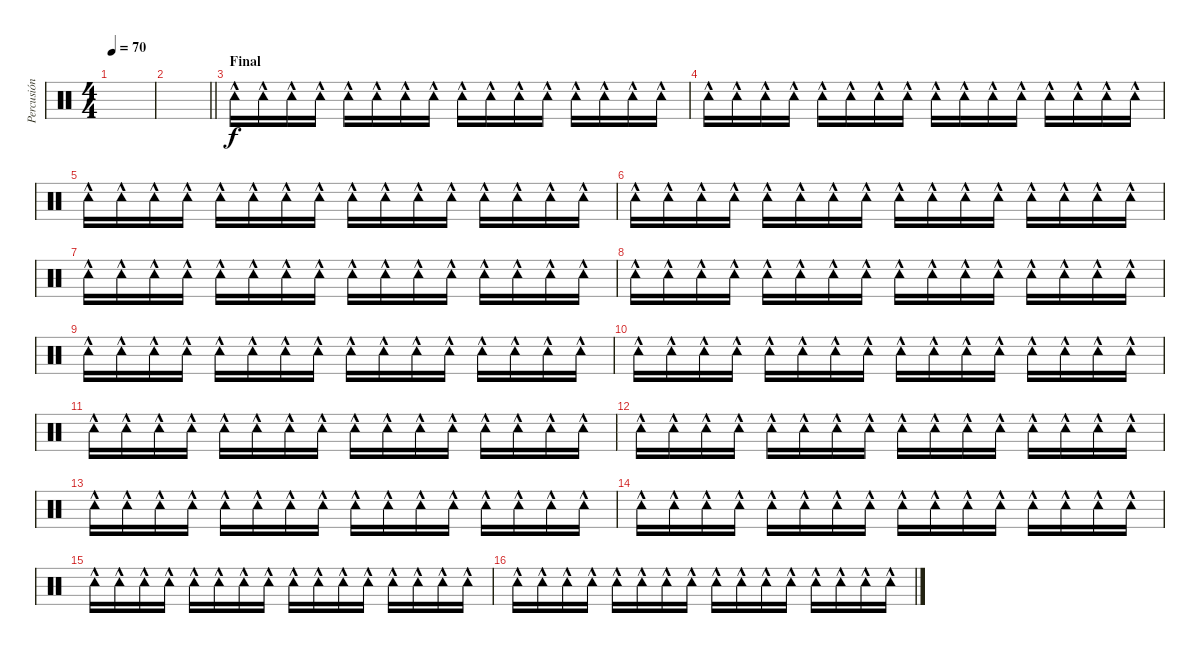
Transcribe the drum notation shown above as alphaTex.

\track ("Percusión" "Percusión") {instrument percussion}
\staff {score}
\articulation defaults
\ts (4 4)
\tempo 70
\clef neutral
\ks c
|
\barLineRight lightlight
|
\section ("" "Final")
"Tambourine (hit)"{hac}.16 "Tambourine (hit)"{hac}.16 "Tambourine (hit)"{hac}.16 "Tambourine (hit)"{hac}.16 "Tambourine (hit)"{hac}.16 "Tambourine (hit)"{hac}.16 "Tambourine (hit)"{hac}.16 "Tambourine (hit)"{hac}.16 "Tambourine (hit)"{hac}.16 "Tambourine (hit)"{hac}.16 "Tambourine (hit)"{hac}.16 "Tambourine (hit)"{hac}.16 "Tambourine (hit)"{hac}.16 "Tambourine (hit)"{hac}.16 "Tambourine (hit)"{hac}.16 "Tambourine (hit)"{hac}.16 |
"Tambourine (hit)"{hac}.16 "Tambourine (hit)"{hac}.16 "Tambourine (hit)"{hac}.16 "Tambourine (hit)"{hac}.16 "Tambourine (hit)"{hac}.16 "Tambourine (hit)"{hac}.16 "Tambourine (hit)"{hac}.16 "Tambourine (hit)"{hac}.16 "Tambourine (hit)"{hac}.16 "Tambourine (hit)"{hac}.16 "Tambourine (hit)"{hac}.16 "Tambourine (hit)"{hac}.16 "Tambourine (hit)"{hac}.16 "Tambourine (hit)"{hac}.16 "Tambourine (hit)"{hac}.16 "Tambourine (hit)"{hac}.16 |
"Tambourine (hit)"{hac}.16 "Tambourine (hit)"{hac}.16 "Tambourine (hit)"{hac}.16 "Tambourine (hit)"{hac}.16 "Tambourine (hit)"{hac}.16 "Tambourine (hit)"{hac}.16 "Tambourine (hit)"{hac}.16 "Tambourine (hit)"{hac}.16 "Tambourine (hit)"{hac}.16 "Tambourine (hit)"{hac}.16 "Tambourine (hit)"{hac}.16 "Tambourine (hit)"{hac}.16 "Tambourine (hit)"{hac}.16 "Tambourine (hit)"{hac}.16 "Tambourine (hit)"{hac}.16 "Tambourine (hit)"{hac}.16 |
"Tambourine (hit)"{hac}.16 "Tambourine (hit)"{hac}.16 "Tambourine (hit)"{hac}.16 "Tambourine (hit)"{hac}.16 "Tambourine (hit)"{hac}.16 "Tambourine (hit)"{hac}.16 "Tambourine (hit)"{hac}.16 "Tambourine (hit)"{hac}.16 "Tambourine (hit)"{hac}.16 "Tambourine (hit)"{hac}.16 "Tambourine (hit)"{hac}.16 "Tambourine (hit)"{hac}.16 "Tambourine (hit)"{hac}.16 "Tambourine (hit)"{hac}.16 "Tambourine (hit)"{hac}.16 "Tambourine (hit)"{hac}.16 |
"Tambourine (hit)"{hac}.16 "Tambourine (hit)"{hac}.16 "Tambourine (hit)"{hac}.16 "Tambourine (hit)"{hac}.16 "Tambourine (hit)"{hac}.16 "Tambourine (hit)"{hac}.16 "Tambourine (hit)"{hac}.16 "Tambourine (hit)"{hac}.16 "Tambourine (hit)"{hac}.16 "Tambourine (hit)"{hac}.16 "Tambourine (hit)"{hac}.16 "Tambourine (hit)"{hac}.16 "Tambourine (hit)"{hac}.16 "Tambourine (hit)"{hac}.16 "Tambourine (hit)"{hac}.16 "Tambourine (hit)"{hac}.16 |
"Tambourine (hit)"{hac}.16 "Tambourine (hit)"{hac}.16 "Tambourine (hit)"{hac}.16 "Tambourine (hit)"{hac}.16 "Tambourine (hit)"{hac}.16 "Tambourine (hit)"{hac}.16 "Tambourine (hit)"{hac}.16 "Tambourine (hit)"{hac}.16 "Tambourine (hit)"{hac}.16 "Tambourine (hit)"{hac}.16 "Tambourine (hit)"{hac}.16 "Tambourine (hit)"{hac}.16 "Tambourine (hit)"{hac}.16 "Tambourine (hit)"{hac}.16 "Tambourine (hit)"{hac}.16 "Tambourine (hit)"{hac}.16 |
"Tambourine (hit)"{hac}.16 "Tambourine (hit)"{hac}.16 "Tambourine (hit)"{hac}.16 "Tambourine (hit)"{hac}.16 "Tambourine (hit)"{hac}.16 "Tambourine (hit)"{hac}.16 "Tambourine (hit)"{hac}.16 "Tambourine (hit)"{hac}.16 "Tambourine (hit)"{hac}.16 "Tambourine (hit)"{hac}.16 "Tambourine (hit)"{hac}.16 "Tambourine (hit)"{hac}.16 "Tambourine (hit)"{hac}.16 "Tambourine (hit)"{hac}.16 "Tambourine (hit)"{hac}.16 "Tambourine (hit)"{hac}.16 |
"Tambourine (hit)"{hac}.16 "Tambourine (hit)"{hac}.16 "Tambourine (hit)"{hac}.16 "Tambourine (hit)"{hac}.16 "Tambourine (hit)"{hac}.16 "Tambourine (hit)"{hac}.16 "Tambourine (hit)"{hac}.16 "Tambourine (hit)"{hac}.16 "Tambourine (hit)"{hac}.16 "Tambourine (hit)"{hac}.16 "Tambourine (hit)"{hac}.16 "Tambourine (hit)"{hac}.16 "Tambourine (hit)"{hac}.16 "Tambourine (hit)"{hac}.16 "Tambourine (hit)"{hac}.16 "Tambourine (hit)"{hac}.16 |
"Tambourine (hit)"{hac}.16 "Tambourine (hit)"{hac}.16 "Tambourine (hit)"{hac}.16 "Tambourine (hit)"{hac}.16 "Tambourine (hit)"{hac}.16 "Tambourine (hit)"{hac}.16 "Tambourine (hit)"{hac}.16 "Tambourine (hit)"{hac}.16 "Tambourine (hit)"{hac}.16 "Tambourine (hit)"{hac}.16 "Tambourine (hit)"{hac}.16 "Tambourine (hit)"{hac}.16 "Tambourine (hit)"{hac}.16 "Tambourine (hit)"{hac}.16 "Tambourine (hit)"{hac}.16 "Tambourine (hit)"{hac}.16 |
"Tambourine (hit)"{hac}.16 "Tambourine (hit)"{hac}.16 "Tambourine (hit)"{hac}.16 "Tambourine (hit)"{hac}.16 "Tambourine (hit)"{hac}.16 "Tambourine (hit)"{hac}.16 "Tambourine (hit)"{hac}.16 "Tambourine (hit)"{hac}.16 "Tambourine (hit)"{hac}.16 "Tambourine (hit)"{hac}.16 "Tambourine (hit)"{hac}.16 "Tambourine (hit)"{hac}.16 "Tambourine (hit)"{hac}.16 "Tambourine (hit)"{hac}.16 "Tambourine (hit)"{hac}.16 "Tambourine (hit)"{hac}.16 |
"Tambourine (hit)"{hac}.16 "Tambourine (hit)"{hac}.16 "Tambourine (hit)"{hac}.16 "Tambourine (hit)"{hac}.16 "Tambourine (hit)"{hac}.16 "Tambourine (hit)"{hac}.16 "Tambourine (hit)"{hac}.16 "Tambourine (hit)"{hac}.16 "Tambourine (hit)"{hac}.16 "Tambourine (hit)"{hac}.16 "Tambourine (hit)"{hac}.16 "Tambourine (hit)"{hac}.16 "Tambourine (hit)"{hac}.16 "Tambourine (hit)"{hac}.16 "Tambourine (hit)"{hac}.16 "Tambourine (hit)"{hac}.16 |
"Tambourine (hit)"{hac}.16 "Tambourine (hit)"{hac}.16 "Tambourine (hit)"{hac}.16 "Tambourine (hit)"{hac}.16 "Tambourine (hit)"{hac}.16 "Tambourine (hit)"{hac}.16 "Tambourine (hit)"{hac}.16 "Tambourine (hit)"{hac}.16 "Tambourine (hit)"{hac}.16 "Tambourine (hit)"{hac}.16 "Tambourine (hit)"{hac}.16 "Tambourine (hit)"{hac}.16 "Tambourine (hit)"{hac}.16 "Tambourine (hit)"{hac}.16 "Tambourine (hit)"{hac}.16 "Tambourine (hit)"{hac}.16 |
"Tambourine (hit)"{hac}.16 "Tambourine (hit)"{hac}.16 "Tambourine (hit)"{hac}.16 "Tambourine (hit)"{hac}.16 "Tambourine (hit)"{hac}.16 "Tambourine (hit)"{hac}.16 "Tambourine (hit)"{hac}.16 "Tambourine (hit)"{hac}.16 "Tambourine (hit)"{hac}.16 "Tambourine (hit)"{hac}.16 "Tambourine (hit)"{hac}.16 "Tambourine (hit)"{hac}.16 "Tambourine (hit)"{hac}.16 "Tambourine (hit)"{hac}.16 "Tambourine (hit)"{hac}.16 "Tambourine (hit)"{hac}.16 |
"Tambourine (hit)"{hac}.16 "Tambourine (hit)"{hac}.16 "Tambourine (hit)"{hac}.16 "Tambourine (hit)"{hac}.16 "Tambourine (hit)"{hac}.16 "Tambourine (hit)"{hac}.16 "Tambourine (hit)"{hac}.16 "Tambourine (hit)"{hac}.16 "Tambourine (hit)"{hac}.16 "Tambourine (hit)"{hac}.16 "Tambourine (hit)"{hac}.16 "Tambourine (hit)"{hac}.16 "Tambourine (hit)"{hac}.16 "Tambourine (hit)"{hac}.16 "Tambourine (hit)"{hac}.16 "Tambourine (hit)"{hac}.16
